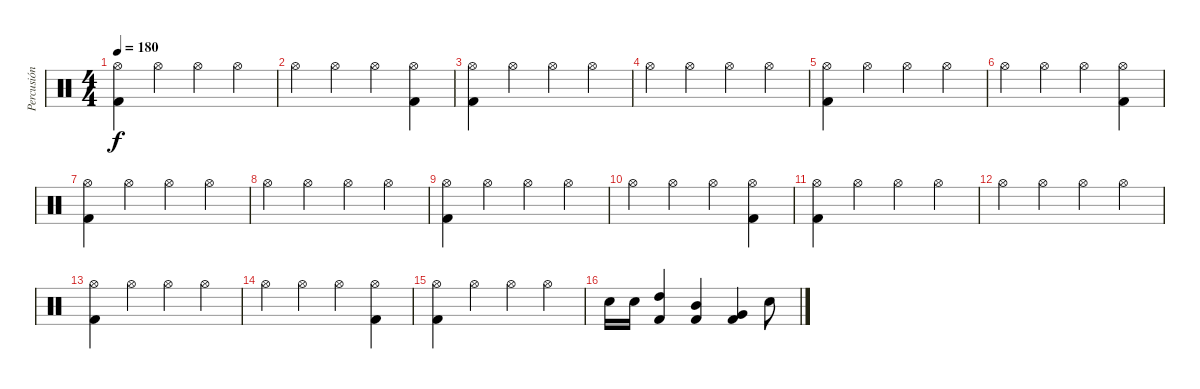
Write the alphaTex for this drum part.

\track ("Percusión" "Percusión") {instrument percussion}
\staff {score}
\articulation defaults
\ts (4 4)
\tempo 180
\clef neutral
\ks c
("Hi-Hat (open)" "Kick (hit) 2").4{dy f} "Hi-Hat (open)".4 "Hi-Hat (open)".4 "Hi-Hat (open)".4 |
"Hi-Hat (open)".4 "Hi-Hat (open)".4 "Hi-Hat (open)".4 ("Hi-Hat (open)" "Kick (hit) 2").4 |
("Hi-Hat (open)" "Kick (hit) 2").4 "Hi-Hat (open)".4 "Hi-Hat (open)".4 "Hi-Hat (open)".4 |
"Hi-Hat (open)".4 "Hi-Hat (open)".4 "Hi-Hat (open)".4 "Hi-Hat (open)".4 |
("Hi-Hat (open)" "Kick (hit) 2").4 "Hi-Hat (open)".4 "Hi-Hat (open)".4 "Hi-Hat (open)".4 |
"Hi-Hat (open)".4 "Hi-Hat (open)".4 "Hi-Hat (open)".4 ("Hi-Hat (open)" "Kick (hit) 2").4 |
("Hi-Hat (open)" "Kick (hit) 2").4 "Hi-Hat (open)".4 "Hi-Hat (open)".4 "Hi-Hat (open)".4 |
"Hi-Hat (open)".4 "Hi-Hat (open)".4 "Hi-Hat (open)".4 "Hi-Hat (open)".4 |
("Hi-Hat (open)" "Kick (hit) 2").4 "Hi-Hat (open)".4 "Hi-Hat (open)".4 "Hi-Hat (open)".4 |
"Hi-Hat (open)".4 "Hi-Hat (open)".4 "Hi-Hat (open)".4 ("Hi-Hat (open)" "Kick (hit) 2").4 |
("Hi-Hat (open)" "Kick (hit) 2").4 "Hi-Hat (open)".4 "Hi-Hat (open)".4 "Hi-Hat (open)".4 |
"Hi-Hat (open)".4 "Hi-Hat (open)".4 "Hi-Hat (open)".4 "Hi-Hat (open)".4 |
("Hi-Hat (open)" "Kick (hit) 2").4 "Hi-Hat (open)".4 "Hi-Hat (open)".4 "Hi-Hat (open)".4 |
"Hi-Hat (open)".4 "Hi-Hat (open)".4 "Hi-Hat (open)".4 ("Hi-Hat (open)" "Kick (hit) 2").4 |
("Hi-Hat (open)" "Kick (hit) 2").4 "Hi-Hat (open)".4 "Hi-Hat (open)".4 "Hi-Hat (open)".4 |
"Electric Snare (hit)".16 "Electric Snare (hit)".16 ("High Tom (hit)" "Kick (hit) 2").4 ("Mid Tom (hit)" "Kick (hit) 2").4 ("Very Low Tom (hit)" "Kick (hit) 2").4 "Electric Snare (hit)".8
